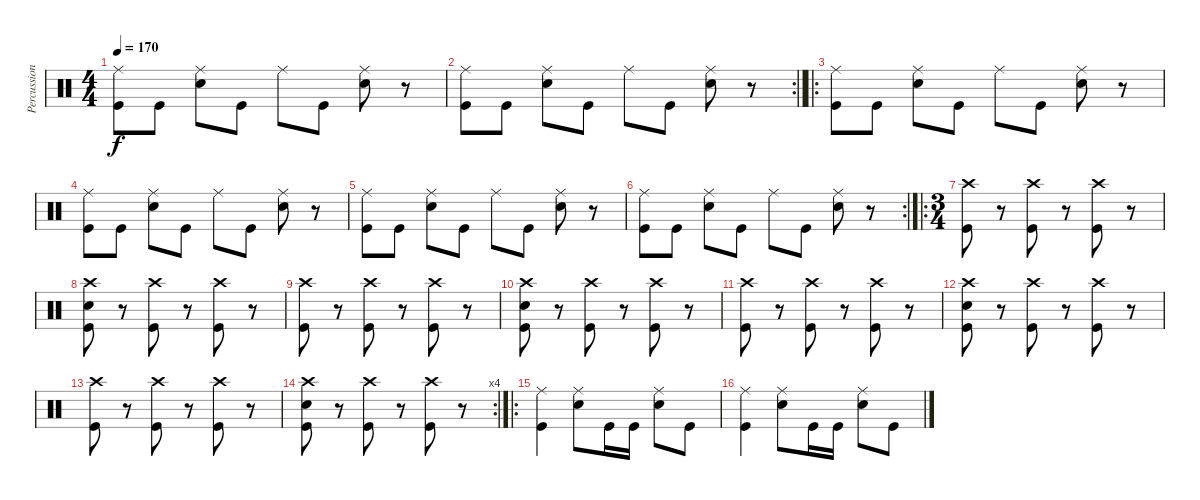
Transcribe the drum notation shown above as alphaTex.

\track ("Percussion" "Percussion") {instrument percussion}
\staff {score}
\articulation defaults
\ts (4 4)
\tempo 170
\clef neutral
\ks c
("Ride (middle)" "Kick (hit)").8{dy f} "Kick (hit)".8 ("Ride (middle)" "Snare (hit) 2").8 "Kick (hit)".8 "Ride (middle)".8 "Kick (hit)".8 ("Ride (middle)" "Snare (hit) 2").8 r.8 |
\rc 2
\barLineRight lightlight
("Ride (middle)" "Kick (hit)").8 "Kick (hit)".8 ("Ride (middle)" "Snare (hit) 2").8 "Kick (hit)".8 "Ride (middle)".8 "Kick (hit)".8 ("Ride (middle)" "Snare (hit) 2").8 r.8 |
\ro
("Ride (middle)" "Kick (hit)").8 "Kick (hit)".8 ("Ride (middle)" "Snare (hit) 2").8 "Kick (hit)".8 "Ride (middle)".8 "Kick (hit)".8 ("Ride (middle)" "Snare (hit) 2").8 r.8 |
("Ride (middle)" "Kick (hit)").8 "Kick (hit)".8 ("Ride (middle)" "Snare (hit) 2").8 "Kick (hit)".8 "Ride (middle)".8 "Kick (hit)".8 ("Ride (middle)" "Snare (hit) 2").8 r.8 |
("Ride (middle)" "Kick (hit)").8 "Kick (hit)".8 ("Ride (middle)" "Snare (hit) 2").8 "Kick (hit)".8 "Ride (middle)".8 "Kick (hit)".8 ("Ride (middle)" "Snare (hit) 2").8 r.8 |
\rc 2
("Ride (middle)" "Kick (hit)").8 "Kick (hit)".8 ("Ride (middle)" "Snare (hit) 2").8 "Kick (hit)".8 "Ride (middle)".8 "Kick (hit)".8 ("Ride (middle)" "Snare (hit) 2").8 r.8 |
\ro
\ts (3 4)
("Crash high (hit)" "Kick (hit)").8 r.8 ("Crash high (hit)" "Kick (hit)").8 r.8 ("Crash high (hit)" "Kick (hit)").8 r.8 |
("Crash high (hit)" "Snare (hit) 2" "Kick (hit)").8 r.8 ("Crash high (hit)" "Kick (hit)").8 r.8 ("Crash high (hit)" "Kick (hit)").8 r.8 |
("Crash high (hit)" "Kick (hit)").8 r.8 ("Crash high (hit)" "Kick (hit)").8 r.8 ("Crash high (hit)" "Kick (hit)").8 r.8 |
("Crash high (hit)" "Snare (hit) 2" "Kick (hit)").8 r.8 ("Crash high (hit)" "Kick (hit)").8 r.8 ("Crash high (hit)" "Kick (hit)").8 r.8 |
("Crash high (hit)" "Kick (hit)").8 r.8 ("Crash high (hit)" "Kick (hit)").8 r.8 ("Crash high (hit)" "Kick (hit)").8 r.8 |
("Crash high (hit)" "Snare (hit) 2" "Kick (hit)").8 r.8 ("Crash high (hit)" "Kick (hit)").8 r.8 ("Crash high (hit)" "Kick (hit)").8 r.8 |
("Crash high (hit)" "Kick (hit)").8 r.8 ("Crash high (hit)" "Kick (hit)").8 r.8 ("Crash high (hit)" "Kick (hit)").8 r.8 |
\rc 4
("Crash high (hit)" "Snare (hit) 2" "Kick (hit)").8 r.8 ("Crash high (hit)" "Kick (hit)").8 r.8 ("Crash high (hit)" "Kick (hit)").8 r.8 |
\ro
("Ride (middle)" "Kick (hit)").4 ("Ride (middle)" "Snare (hit) 2").8 "Kick (hit)".16 "Kick (hit)".16 ("Ride (middle)" "Snare (hit) 2").8 "Kick (hit)".8 |
("Ride (middle)" "Kick (hit)").4 ("Ride (middle)" "Snare (hit) 2").8 "Kick (hit)".16 "Kick (hit)".16 ("Ride (middle)" "Snare (hit) 2").8 "Kick (hit)".8
